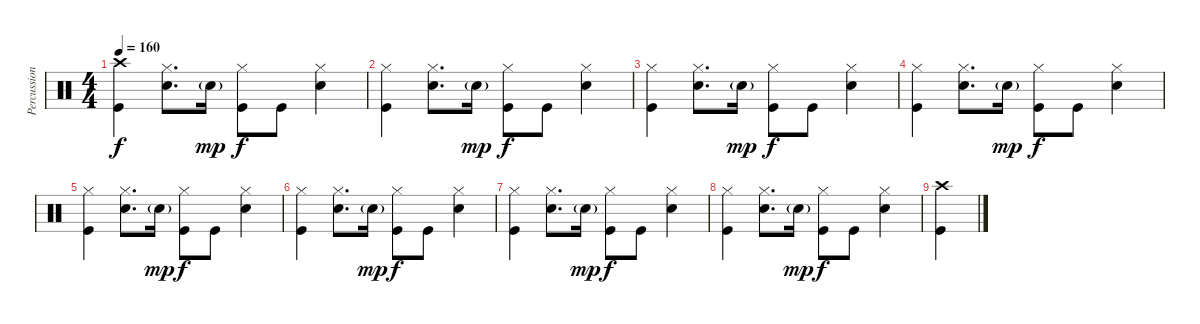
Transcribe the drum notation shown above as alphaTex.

\track ("Percussion" "Percussion") {instrument percussion}
\staff {score}
\articulation defaults
\ts (4 4)
\tempo 160
\clef neutral
\ks c
("Kick (hit)" "Crash high (hit)").4{dy f} ("Snare (hit) 2" "Hi-Hat (closed)").8{d} "Snare (hit) 2"{g}.16{dy mp} ("Kick (hit)" "Hi-Hat (closed)").8{dy f} "Kick (hit)".8 ("Snare (hit) 2" "Hi-Hat (closed)").4 |
("Kick (hit)" "Hi-Hat (closed)").4 ("Snare (hit) 2" "Hi-Hat (closed)").8{d} "Snare (hit) 2"{g}.16{dy mp} ("Kick (hit)" "Hi-Hat (closed)").8{dy f} "Kick (hit)".8 ("Snare (hit) 2" "Hi-Hat (closed)").4 |
("Kick (hit)" "Hi-Hat (closed)").4 ("Snare (hit) 2" "Hi-Hat (closed)").8{d} "Snare (hit) 2"{g}.16{dy mp} ("Kick (hit)" "Hi-Hat (closed)").8{dy f} "Kick (hit)".8 ("Snare (hit) 2" "Hi-Hat (closed)").4 |
("Kick (hit)" "Hi-Hat (closed)").4 ("Snare (hit) 2" "Hi-Hat (closed)").8{d} "Snare (hit) 2"{g}.16{dy mp} ("Kick (hit)" "Hi-Hat (closed)").8{dy f} "Kick (hit)".8 ("Snare (hit) 2" "Hi-Hat (closed)").4 |
("Kick (hit)" "Hi-Hat (closed)").4 ("Snare (hit) 2" "Hi-Hat (closed)").8{d} "Snare (hit) 2"{g}.16{dy mp} ("Kick (hit)" "Hi-Hat (closed)").8{dy f} "Kick (hit)".8 ("Snare (hit) 2" "Hi-Hat (closed)").4 |
("Kick (hit)" "Hi-Hat (closed)").4 ("Snare (hit) 2" "Hi-Hat (closed)").8{d} "Snare (hit) 2"{g}.16{dy mp} ("Kick (hit)" "Hi-Hat (closed)").8{dy f} "Kick (hit)".8 ("Snare (hit) 2" "Hi-Hat (closed)").4 |
("Kick (hit)" "Hi-Hat (closed)").4 ("Snare (hit) 2" "Hi-Hat (closed)").8{d} "Snare (hit) 2"{g}.16{dy mp} ("Kick (hit)" "Hi-Hat (closed)").8{dy f} "Kick (hit)".8 ("Snare (hit) 2" "Hi-Hat (closed)").4 |
("Kick (hit)" "Hi-Hat (closed)").4 ("Snare (hit) 2" "Hi-Hat (closed)").8{d} "Snare (hit) 2"{g}.16{dy mp} ("Kick (hit)" "Hi-Hat (closed)").8{dy f} "Kick (hit)".8 ("Snare (hit) 2" "Hi-Hat (closed)").4 |
("Crash high (hit)" "Kick (hit)").4
